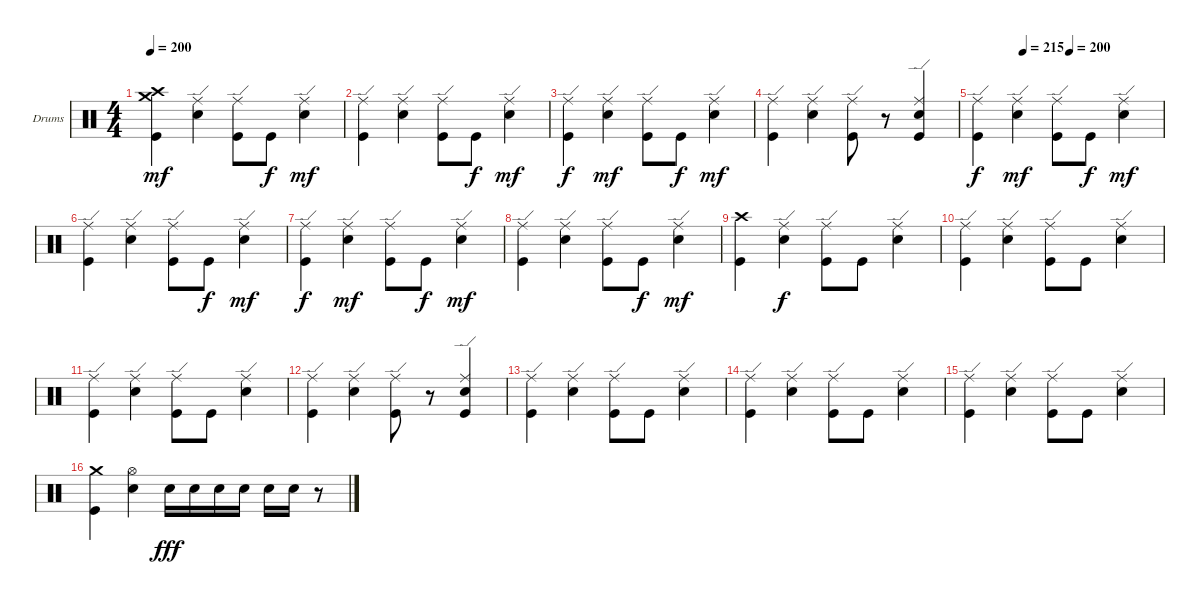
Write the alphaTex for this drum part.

\bracketExtendMode groupsimilarinstruments
\firstSystemTrackNameOrientation horizontal
\otherSystemsTrackNameOrientation horizontal
\track ("Drumkit" "Drums") {instrument percussion}
\staff {score}
\articulation defaults
\ts (4 4)
\tempo 200
\clef neutral
\ks c
("Crash medium (hit)" "Crash high (hit)" "Kick (hit)").4{dy mf} ("Ride (edge)" "Snare (hit) 2").4 ("Ride (edge)" "Kick (hit)").8 "Kick (hit)".8{dy f} ("Ride (edge)" "Snare (hit) 2").4{dy mf} |
("Ride (edge)" "Kick (hit)").4 ("Ride (edge)" "Snare (hit) 2").4 ("Ride (edge)" "Kick (hit)").8 "Kick (hit)".8{dy f} ("Ride (edge)" "Snare (hit) 2").4{dy mf} |
("Ride (edge)" "Kick (hit)").4{dy f} ("Ride (edge)" "Snare (hit) 2").4{dy mf} ("Ride (edge)" "Kick (hit)").8 "Kick (hit)".8{dy f} ("Ride (edge)" "Snare (hit) 2").4{dy mf} |
("Ride (edge)" "Kick (hit)").4 ("Ride (edge)" "Snare (hit) 2").4 ("Ride (edge)" "Kick (hit)").8 r.8 ("Ride (edge)" "Snare (hit) 2" "Kick (hit)").4 |
\tempo (215 0.25)
\tempo (200 0.5)
("Ride (edge)" "Kick (hit)").4{dy f} ("Ride (edge)" "Snare (hit) 2").4{dy mf} ("Ride (edge)" "Kick (hit)").8 "Kick (hit)".8{dy f} ("Ride (edge)" "Snare (hit) 2").4{dy mf} |
("Ride (edge)" "Kick (hit)").4 ("Ride (edge)" "Snare (hit) 2").4 ("Ride (edge)" "Kick (hit)").8 "Kick (hit)".8{dy f} ("Ride (edge)" "Snare (hit) 2").4{dy mf} |
("Ride (edge)" "Kick (hit)").4{dy f} ("Ride (edge)" "Snare (hit) 2").4{dy mf} ("Ride (edge)" "Kick (hit)").8 "Kick (hit)".8{dy f} ("Ride (edge)" "Snare (hit) 2").4{dy mf} |
("Ride (edge)" "Kick (hit)").4 ("Ride (edge)" "Snare (hit) 2").4 ("Ride (edge)" "Kick (hit)").8 "Kick (hit)".8{dy f} ("Ride (edge)" "Snare (hit) 2").4{dy mf} |
("Crash high (hit)" "Kick (hit)").4 ("Ride (edge)" "Snare (hit) 2").4{dy f} ("Ride (edge)" "Kick (hit)").8 "Kick (hit)".8 ("Ride (edge)" "Snare (hit) 2").4 |
("Ride (edge)" "Kick (hit)").4 ("Ride (edge)" "Snare (hit) 2").4 ("Ride (edge)" "Kick (hit)").8 "Kick (hit)".8 ("Ride (edge)" "Snare (hit) 2").4 |
("Ride (edge)" "Kick (hit)").4 ("Ride (edge)" "Snare (hit) 2").4 ("Ride (edge)" "Kick (hit)").8 "Kick (hit)".8 ("Ride (edge)" "Snare (hit) 2").4 |
("Ride (edge)" "Kick (hit)").4 ("Ride (edge)" "Snare (hit) 2").4 ("Ride (edge)" "Kick (hit)").8 r.8 ("Ride (edge)" "Snare (hit) 2" "Kick (hit)").4 |
("Ride (edge)" "Kick (hit)").4 ("Ride (edge)" "Snare (hit) 2").4 ("Ride (edge)" "Kick (hit)").8 "Kick (hit)".8 ("Ride (edge)" "Snare (hit) 2").4 |
("Ride (edge)" "Kick (hit)").4 ("Ride (edge)" "Snare (hit) 2").4 ("Ride (edge)" "Kick (hit)").8 "Kick (hit)".8 ("Ride (edge)" "Snare (hit) 2").4 |
("Ride (edge)" "Kick (hit)").4 ("Ride (edge)" "Snare (hit) 2").4 ("Ride (edge)" "Kick (hit)").8 "Kick (hit)".8 ("Ride (edge)" "Snare (hit) 2").4 |
("Crash medium (hit)" "Kick (hit)").4 ("Hi-Hat (open)" "Snare (hit) 2").4 "Snare (hit) 2".16{dy fff} "Snare (hit) 2".16 "Snare (hit) 2".16 "Snare (hit) 2".16 "Snare (hit) 2".16 "Snare (hit) 2".16 r.8
